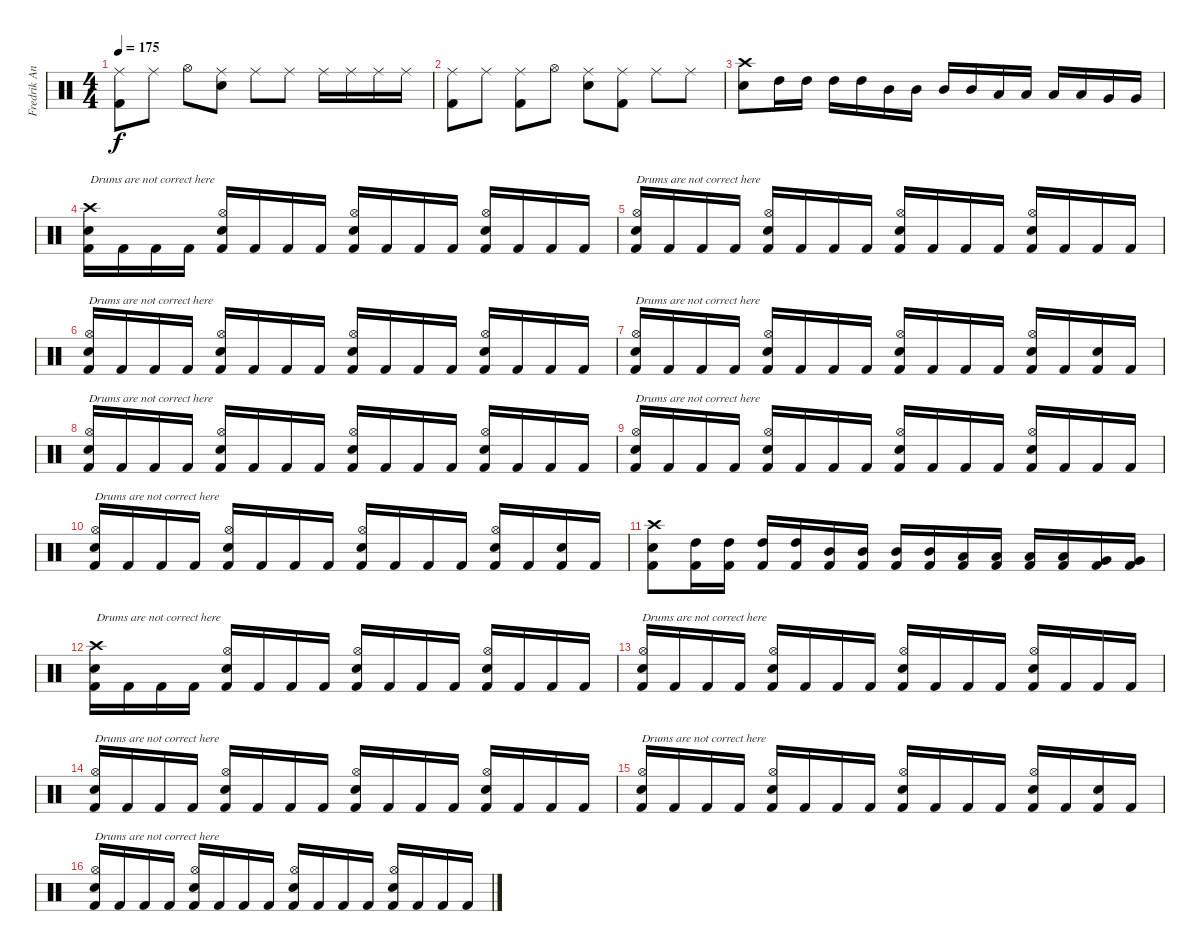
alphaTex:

\track ("Fredrik Andersson" "Fredrik An") {instrument percussion}
\staff {score}
\articulation defaults
\ts (4 4)
\tempo 175
\clef neutral
\ks c
("Ride (middle)" "Kick (hit) 2").8{dy f} "Ride (middle)".8 "Hi-Hat (open)".8 ("Ride (middle)" "Electric Snare (hit)").8 "Ride (middle)".8 "Ride (middle)".8 "Ride (middle)".16 "Ride (middle)".16 "Ride (middle)".16 "Ride (middle)".16 |
("Ride (middle)" "Kick (hit) 2").8 "Ride (middle)".8 ("Ride (middle)" "Kick (hit) 2").8 "Hi-Hat (open)".8 ("Ride (middle)" "Electric Snare (hit)").8 ("Ride (middle)" "Kick (hit) 2").8 "Ride (middle)".8 "Ride (middle)".8 |
("Crash high (hit)" "Electric Snare (hit)").8 "High Tom (hit)".16 "High Tom (hit)".16 "High Tom (hit)".16 "High Tom (hit)".16 "Mid Tom (hit)".16 "Mid Tom (hit)".16 "Mid Tom (hit)".16 "Mid Tom (hit)".16 "Low Tom (hit)".16 "Low Tom (hit)".16 "Low Tom (hit)".16 "Low Tom (hit)".16 "Very Low Tom (hit)".16 "Very Low Tom (hit)".16 |
("Crash high (hit)" "Electric Snare (hit)" "Kick (hit) 2").16{txt "Drums are not correct here"} "Kick (hit) 2".16 "Kick (hit) 2".16 "Kick (hit) 2".16 ("Hi-Hat (open)" "Electric Snare (hit)" "Kick (hit) 2").16 "Kick (hit) 2".16 "Kick (hit) 2".16 "Kick (hit) 2".16 ("Hi-Hat (open)" "Electric Snare (hit)" "Kick (hit) 2").16 "Kick (hit) 2".16 "Kick (hit) 2".16 "Kick (hit) 2".16 ("Hi-Hat (open)" "Electric Snare (hit)" "Kick (hit) 2").16 "Kick (hit) 2".16 "Kick (hit) 2".16 "Kick (hit) 2".16 |
("Hi-Hat (open)" "Electric Snare (hit)" "Kick (hit) 2").16{txt "Drums are not correct here"} "Kick (hit) 2".16 "Kick (hit) 2".16 "Kick (hit) 2".16 ("Hi-Hat (open)" "Electric Snare (hit)" "Kick (hit) 2").16 "Kick (hit) 2".16 "Kick (hit) 2".16 "Kick (hit) 2".16 ("Hi-Hat (open)" "Electric Snare (hit)" "Kick (hit) 2").16 "Kick (hit) 2".16 "Kick (hit) 2".16 "Kick (hit) 2".16 ("Hi-Hat (open)" "Electric Snare (hit)" "Kick (hit) 2").16 "Kick (hit) 2".16 "Kick (hit) 2".16 "Kick (hit) 2".16 |
("Hi-Hat (open)" "Electric Snare (hit)" "Kick (hit) 2").16{txt "Drums are not correct here"} "Kick (hit) 2".16 "Kick (hit) 2".16 "Kick (hit) 2".16 ("Hi-Hat (open)" "Electric Snare (hit)" "Kick (hit) 2").16 "Kick (hit) 2".16 "Kick (hit) 2".16 "Kick (hit) 2".16 ("Hi-Hat (open)" "Electric Snare (hit)" "Kick (hit) 2").16 "Kick (hit) 2".16 "Kick (hit) 2".16 "Kick (hit) 2".16 ("Hi-Hat (open)" "Electric Snare (hit)" "Kick (hit) 2").16 "Kick (hit) 2".16 "Kick (hit) 2".16 "Kick (hit) 2".16 |
("Hi-Hat (open)" "Electric Snare (hit)" "Kick (hit) 2").16{txt "Drums are not correct here"} "Kick (hit) 2".16 "Kick (hit) 2".16 "Kick (hit) 2".16 ("Hi-Hat (open)" "Electric Snare (hit)" "Kick (hit) 2").16 "Kick (hit) 2".16 "Kick (hit) 2".16 "Kick (hit) 2".16 ("Hi-Hat (open)" "Electric Snare (hit)" "Kick (hit) 2").16 "Kick (hit) 2".16 "Kick (hit) 2".16 "Kick (hit) 2".16 ("Hi-Hat (open)" "Electric Snare (hit)" "Kick (hit) 2").16 "Kick (hit) 2".16 ("Electric Snare (hit)" "Kick (hit) 2").16 "Kick (hit) 2".16 |
("Hi-Hat (open)" "Electric Snare (hit)" "Kick (hit) 2").16{txt "Drums are not correct here"} "Kick (hit) 2".16 "Kick (hit) 2".16 "Kick (hit) 2".16 ("Hi-Hat (open)" "Electric Snare (hit)" "Kick (hit) 2").16 "Kick (hit) 2".16 "Kick (hit) 2".16 "Kick (hit) 2".16 ("Hi-Hat (open)" "Electric Snare (hit)" "Kick (hit) 2").16 "Kick (hit) 2".16 "Kick (hit) 2".16 "Kick (hit) 2".16 ("Hi-Hat (open)" "Electric Snare (hit)" "Kick (hit) 2").16 "Kick (hit) 2".16 "Kick (hit) 2".16 "Kick (hit) 2".16 |
("Hi-Hat (open)" "Electric Snare (hit)" "Kick (hit) 2").16{txt "Drums are not correct here"} "Kick (hit) 2".16 "Kick (hit) 2".16 "Kick (hit) 2".16 ("Hi-Hat (open)" "Electric Snare (hit)" "Kick (hit) 2").16 "Kick (hit) 2".16 "Kick (hit) 2".16 "Kick (hit) 2".16 ("Hi-Hat (open)" "Electric Snare (hit)" "Kick (hit) 2").16 "Kick (hit) 2".16 "Kick (hit) 2".16 "Kick (hit) 2".16 ("Hi-Hat (open)" "Electric Snare (hit)" "Kick (hit) 2").16 "Kick (hit) 2".16 "Kick (hit) 2".16 "Kick (hit) 2".16 |
("Hi-Hat (open)" "Electric Snare (hit)" "Kick (hit) 2").16{txt "Drums are not correct here"} "Kick (hit) 2".16 "Kick (hit) 2".16 "Kick (hit) 2".16 ("Hi-Hat (open)" "Electric Snare (hit)" "Kick (hit) 2").16 "Kick (hit) 2".16 "Kick (hit) 2".16 "Kick (hit) 2".16 ("Hi-Hat (open)" "Electric Snare (hit)" "Kick (hit) 2").16 "Kick (hit) 2".16 "Kick (hit) 2".16 "Kick (hit) 2".16 ("Hi-Hat (open)" "Electric Snare (hit)" "Kick (hit) 2").16 "Kick (hit) 2".16 ("Electric Snare (hit)" "Kick (hit) 2").16 "Kick (hit) 2".16 |
("Crash high (hit)" "Electric Snare (hit)" "Kick (hit) 2").8 ("High Tom (hit)" "Kick (hit) 2").16 ("High Tom (hit)" "Kick (hit) 2").16 ("High Tom (hit)" "Kick (hit) 2").16 ("High Tom (hit)" "Kick (hit) 2").16 ("Mid Tom (hit)" "Kick (hit) 2").16 ("Mid Tom (hit)" "Kick (hit) 2").16 ("Mid Tom (hit)" "Kick (hit) 2").16 ("Mid Tom (hit)" "Kick (hit) 2").16 ("Low Tom (hit)" "Kick (hit) 2").16 ("Low Tom (hit)" "Kick (hit) 2").16 ("Low Tom (hit)" "Kick (hit) 2").16 ("Low Tom (hit)" "Kick (hit) 2").16 ("Very Low Tom (hit)" "Kick (hit) 2").16 ("Very Low Tom (hit)" "Kick (hit) 2").16 |
("Crash high (hit)" "Electric Snare (hit)" "Kick (hit) 2").16{txt "Drums are not correct here"} "Kick (hit) 2".16 "Kick (hit) 2".16 "Kick (hit) 2".16 ("Hi-Hat (open)" "Electric Snare (hit)" "Kick (hit) 2").16 "Kick (hit) 2".16 "Kick (hit) 2".16 "Kick (hit) 2".16 ("Hi-Hat (open)" "Electric Snare (hit)" "Kick (hit) 2").16 "Kick (hit) 2".16 "Kick (hit) 2".16 "Kick (hit) 2".16 ("Hi-Hat (open)" "Electric Snare (hit)" "Kick (hit) 2").16 "Kick (hit) 2".16 "Kick (hit) 2".16 "Kick (hit) 2".16 |
("Hi-Hat (open)" "Electric Snare (hit)" "Kick (hit) 2").16{txt "Drums are not correct here"} "Kick (hit) 2".16 "Kick (hit) 2".16 "Kick (hit) 2".16 ("Hi-Hat (open)" "Electric Snare (hit)" "Kick (hit) 2").16 "Kick (hit) 2".16 "Kick (hit) 2".16 "Kick (hit) 2".16 ("Hi-Hat (open)" "Electric Snare (hit)" "Kick (hit) 2").16 "Kick (hit) 2".16 "Kick (hit) 2".16 "Kick (hit) 2".16 ("Hi-Hat (open)" "Electric Snare (hit)" "Kick (hit) 2").16 "Kick (hit) 2".16 "Kick (hit) 2".16 "Kick (hit) 2".16 |
("Hi-Hat (open)" "Electric Snare (hit)" "Kick (hit) 2").16{txt "Drums are not correct here"} "Kick (hit) 2".16 "Kick (hit) 2".16 "Kick (hit) 2".16 ("Hi-Hat (open)" "Electric Snare (hit)" "Kick (hit) 2").16 "Kick (hit) 2".16 "Kick (hit) 2".16 "Kick (hit) 2".16 ("Hi-Hat (open)" "Electric Snare (hit)" "Kick (hit) 2").16 "Kick (hit) 2".16 "Kick (hit) 2".16 "Kick (hit) 2".16 ("Hi-Hat (open)" "Electric Snare (hit)" "Kick (hit) 2").16 "Kick (hit) 2".16 "Kick (hit) 2".16 "Kick (hit) 2".16 |
("Hi-Hat (open)" "Electric Snare (hit)" "Kick (hit) 2").16{txt "Drums are not correct here"} "Kick (hit) 2".16 "Kick (hit) 2".16 "Kick (hit) 2".16 ("Hi-Hat (open)" "Electric Snare (hit)" "Kick (hit) 2").16 "Kick (hit) 2".16 "Kick (hit) 2".16 "Kick (hit) 2".16 ("Hi-Hat (open)" "Electric Snare (hit)" "Kick (hit) 2").16 "Kick (hit) 2".16 "Kick (hit) 2".16 "Kick (hit) 2".16 ("Hi-Hat (open)" "Electric Snare (hit)" "Kick (hit) 2").16 "Kick (hit) 2".16 ("Electric Snare (hit)" "Kick (hit) 2").16 "Kick (hit) 2".16 |
("Hi-Hat (open)" "Electric Snare (hit)" "Kick (hit) 2").16{txt "Drums are not correct here"} "Kick (hit) 2".16 "Kick (hit) 2".16 "Kick (hit) 2".16 ("Hi-Hat (open)" "Electric Snare (hit)" "Kick (hit) 2").16 "Kick (hit) 2".16 "Kick (hit) 2".16 "Kick (hit) 2".16 ("Hi-Hat (open)" "Electric Snare (hit)" "Kick (hit) 2").16 "Kick (hit) 2".16 "Kick (hit) 2".16 "Kick (hit) 2".16 ("Hi-Hat (open)" "Electric Snare (hit)" "Kick (hit) 2").16 "Kick (hit) 2".16 "Kick (hit) 2".16 "Kick (hit) 2".16
